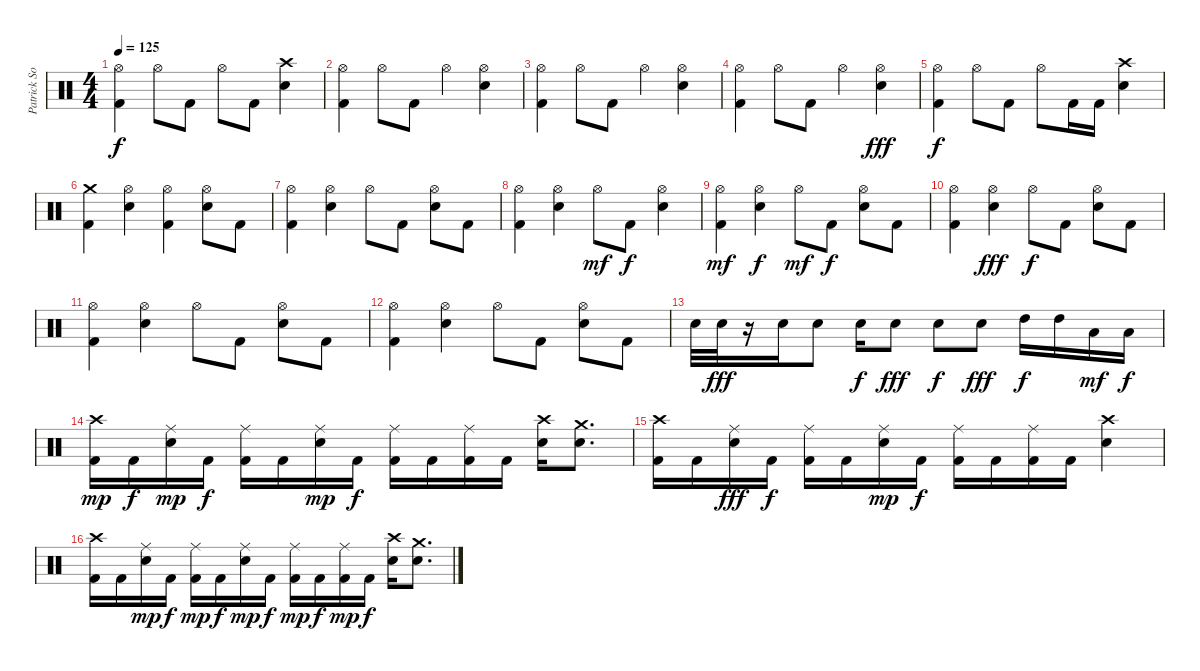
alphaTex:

\track ("Patrick Soria" "Patrick So") {instrument percussion}
\staff {score}
\articulation defaults
\ts (4 4)
\tempo 125
\clef neutral
\ks c
("Hi-Hat (open)" "Kick (hit) 2").4{dy f} "Hi-Hat (open)".8 "Kick (hit) 2".8 "Hi-Hat (open)".8 "Kick (hit) 2".8 ("Crash high (hit)" "Snare (hit) 2").4 |
("Hi-Hat (open)" "Kick (hit) 2").4 "Hi-Hat (open)".8 "Kick (hit) 2".8 "Hi-Hat (open)".4 ("Hi-Hat (open)" "Snare (hit) 2").4 |
("Hi-Hat (open)" "Kick (hit) 2").4 "Hi-Hat (open)".8 "Kick (hit) 2".8 "Hi-Hat (open)".4 ("Hi-Hat (open)" "Snare (hit) 2").4 |
("Hi-Hat (open)" "Kick (hit) 2").4 "Hi-Hat (open)".8 "Kick (hit) 2".8 "Hi-Hat (open)".4 ("Hi-Hat (open)" "Snare (hit) 2").4{dy fff} |
("Hi-Hat (open)" "Kick (hit) 2").4{dy f} "Hi-Hat (open)".8 "Kick (hit) 2".8 "Hi-Hat (open)".8 "Kick (hit) 2".16 "Kick (hit) 2".16 ("Crash high (hit)" "Snare (hit) 2").4 |
("Crash medium (hit)" "Kick (hit) 2").4 ("Hi-Hat (open)" "Snare (hit) 2").4 ("Hi-Hat (open)" "Kick (hit) 2").4 ("Hi-Hat (open)" "Snare (hit) 2").8 "Kick (hit) 2".8 |
("Hi-Hat (open)" "Kick (hit) 2").4 ("Hi-Hat (open)" "Snare (hit) 2").4 "Hi-Hat (open)".8 "Kick (hit) 2".8 ("Hi-Hat (open)" "Snare (hit) 2").8 "Kick (hit) 2".8 |
("Hi-Hat (open)" "Kick (hit) 2").4 ("Hi-Hat (open)" "Snare (hit) 2").4 "Hi-Hat (open)".8{dy mf} "Kick (hit) 2".8{dy f} ("Hi-Hat (open)" "Snare (hit) 2").4 |
("Hi-Hat (open)" "Kick (hit) 2").4{dy mf} ("Hi-Hat (open)" "Snare (hit) 2").4{dy f} "Hi-Hat (open)".8{dy mf} "Kick (hit) 2".8{dy f} ("Hi-Hat (open)" "Snare (hit) 2").8 "Kick (hit) 2".8 |
("Hi-Hat (open)" "Kick (hit) 2").4 ("Hi-Hat (open)" "Snare (hit) 2").4{dy fff} "Hi-Hat (open)".8{dy f} "Kick (hit) 2".8 ("Hi-Hat (open)" "Snare (hit) 2").8 "Kick (hit) 2".8 |
("Hi-Hat (open)" "Kick (hit) 2").4 ("Hi-Hat (open)" "Snare (hit) 2").4 "Hi-Hat (open)".8 "Kick (hit) 2".8 ("Hi-Hat (open)" "Snare (hit) 2").8 "Kick (hit) 2".8 |
("Hi-Hat (open)" "Kick (hit) 2").4 ("Hi-Hat (open)" "Snare (hit) 2").4 "Hi-Hat (open)".8 "Kick (hit) 2".8 ("Hi-Hat (open)" "Snare (hit) 2").8 "Kick (hit) 2".8 |
"Snare (hit) 2".32 "Snare (hit) 2".32{dy fff} r.16 "Snare (hit) 2".16 "Snare (hit) 2".8 "Snare (hit) 2".16{dy f} "Snare (hit) 2".8{dy fff} "Snare (hit) 2".8{dy f} "Snare (hit) 2".8{dy fff} "High Tom (hit)".16{dy f} "High Tom (hit)".16 "Low Tom (hit)".16{dy mf} "Low Tom (hit)".16{dy f} |
("Crash high (hit)" "Kick (hit) 2").16{dy mp} "Kick (hit) 2".16{dy f} ("Ride (middle)" "Snare (hit) 2").16{dy mp} "Kick (hit) 2".16{dy f} ("Ride (middle)" "Kick (hit) 2").16 "Kick (hit) 2".16 ("Ride (middle)" "Snare (hit) 2").16{dy mp} "Kick (hit) 2".16{dy f} ("Ride (middle)" "Kick (hit) 2").16 "Kick (hit) 2".16 ("Ride (middle)" "Kick (hit) 2").16 "Kick (hit) 2".16 ("Crash high (hit)" "Snare (hit) 2").16 ("Crash medium (hit)" "Snare (hit) 2").8{d} |
("Crash high (hit)" "Kick (hit) 2").16 "Kick (hit) 2".16 ("Ride (middle)" "Snare (hit) 2").16{dy fff} "Kick (hit) 2".16{dy f} ("Ride (middle)" "Kick (hit) 2").16 "Kick (hit) 2".16 ("Ride (middle)" "Snare (hit) 2").16{dy mp} "Kick (hit) 2".16{dy f} ("Ride (middle)" "Kick (hit) 2").16 "Kick (hit) 2".16 ("Ride (middle)" "Kick (hit) 2").16 "Kick (hit) 2".16 ("Crash high (hit)" "Snare (hit) 2").4 |
("Crash high (hit)" "Kick (hit) 2").16 "Kick (hit) 2".16 ("Ride (middle)" "Snare (hit) 2").16{dy mp} "Kick (hit) 2".16{dy f} ("Ride (middle)" "Kick (hit) 2").16{dy mp} "Kick (hit) 2".16{dy f} ("Ride (middle)" "Snare (hit) 2").16{dy mp} "Kick (hit) 2".16{dy f} ("Ride (middle)" "Kick (hit) 2").16{dy mp} "Kick (hit) 2".16{dy f} ("Ride (middle)" "Kick (hit) 2").16{dy mp} "Kick (hit) 2".16{dy f} ("Crash high (hit)" "Snare (hit) 2").16 ("Crash medium (hit)" "Snare (hit) 2").8{d}
